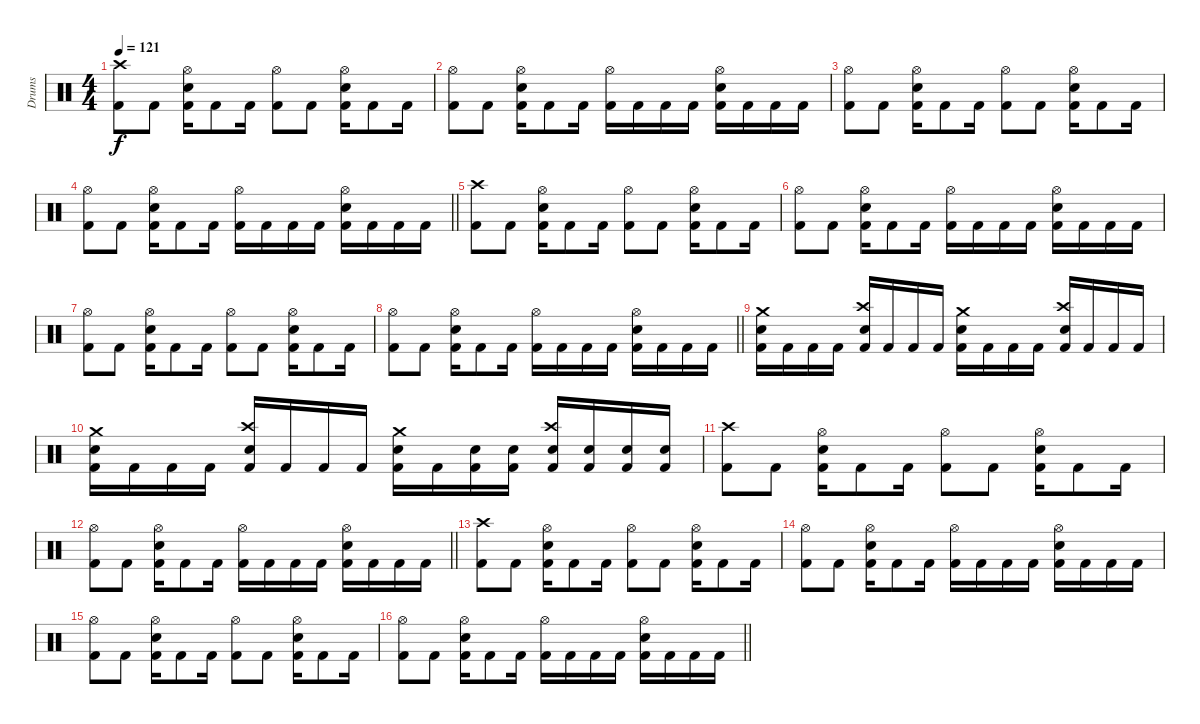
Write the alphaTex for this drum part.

\track ("Drums" "Drums") {instrument percussion}
\staff {score}
\articulation defaults
\ts (4 4)
\section ("" "")
\tempo 121
\clef neutral
\ks c
("Kick (hit) 2" "Crash high (hit)").8{dy f} "Kick (hit) 2".8 ("Kick (hit) 2" "Snare (hit) 2" "Hi-Hat (open)").16 "Kick (hit) 2".8 "Kick (hit) 2".16 ("Kick (hit) 2" "Hi-Hat (open)").8 "Kick (hit) 2".8 ("Kick (hit) 2" "Snare (hit) 2" "Hi-Hat (open)").16 "Kick (hit) 2".8 "Kick (hit) 2".16 |
("Kick (hit) 2" "Hi-Hat (open)").8 "Kick (hit) 2".8 ("Kick (hit) 2" "Snare (hit) 2" "Hi-Hat (open)").16 "Kick (hit) 2".8 "Kick (hit) 2".16 ("Kick (hit) 2" "Hi-Hat (open)").16 "Kick (hit) 2".16 "Kick (hit) 2".16 "Kick (hit) 2".16 ("Kick (hit) 2" "Snare (hit) 2" "Hi-Hat (open)").16 "Kick (hit) 2".16 "Kick (hit) 2".16 "Kick (hit) 2".16 |
("Kick (hit) 2" "Hi-Hat (open)").8 "Kick (hit) 2".8 ("Kick (hit) 2" "Snare (hit) 2" "Hi-Hat (open)").16 "Kick (hit) 2".8 "Kick (hit) 2".16 ("Kick (hit) 2" "Hi-Hat (open)").8 "Kick (hit) 2".8 ("Kick (hit) 2" "Snare (hit) 2" "Hi-Hat (open)").16 "Kick (hit) 2".8 "Kick (hit) 2".16 |
\barLineRight lightlight
("Kick (hit) 2" "Hi-Hat (open)").8 "Kick (hit) 2".8 ("Kick (hit) 2" "Snare (hit) 2" "Hi-Hat (open)").16 "Kick (hit) 2".8 "Kick (hit) 2".16 ("Kick (hit) 2" "Hi-Hat (open)").16 "Kick (hit) 2".16 "Kick (hit) 2".16 "Kick (hit) 2".16 ("Kick (hit) 2" "Snare (hit) 2" "Hi-Hat (open)").16 "Kick (hit) 2".16 "Kick (hit) 2".16 "Kick (hit) 2".16 |
\section ("" "")
("Kick (hit) 2" "Crash high (hit)").8 "Kick (hit) 2".8 ("Kick (hit) 2" "Snare (hit) 2" "Hi-Hat (open)").16 "Kick (hit) 2".8 "Kick (hit) 2".16 ("Kick (hit) 2" "Hi-Hat (open)").8 "Kick (hit) 2".8 ("Kick (hit) 2" "Snare (hit) 2" "Hi-Hat (open)").16 "Kick (hit) 2".8 "Kick (hit) 2".16 |
("Kick (hit) 2" "Hi-Hat (open)").8 "Kick (hit) 2".8 ("Kick (hit) 2" "Snare (hit) 2" "Hi-Hat (open)").16 "Kick (hit) 2".8 "Kick (hit) 2".16 ("Kick (hit) 2" "Hi-Hat (open)").16 "Kick (hit) 2".16 "Kick (hit) 2".16 "Kick (hit) 2".16 ("Kick (hit) 2" "Snare (hit) 2" "Hi-Hat (open)").16 "Kick (hit) 2".16 "Kick (hit) 2".16 "Kick (hit) 2".16 |
("Kick (hit) 2" "Hi-Hat (open)").8 "Kick (hit) 2".8 ("Kick (hit) 2" "Snare (hit) 2" "Hi-Hat (open)").16 "Kick (hit) 2".8 "Kick (hit) 2".16 ("Kick (hit) 2" "Hi-Hat (open)").8 "Kick (hit) 2".8 ("Kick (hit) 2" "Snare (hit) 2" "Hi-Hat (open)").16 "Kick (hit) 2".8 "Kick (hit) 2".16 |
\barLineRight lightlight
("Kick (hit) 2" "Hi-Hat (open)").8 "Kick (hit) 2".8 ("Kick (hit) 2" "Snare (hit) 2" "Hi-Hat (open)").16 "Kick (hit) 2".8 "Kick (hit) 2".16 ("Kick (hit) 2" "Hi-Hat (open)").16 "Kick (hit) 2".16 "Kick (hit) 2".16 "Kick (hit) 2".16 ("Kick (hit) 2" "Snare (hit) 2" "Hi-Hat (open)").16 "Kick (hit) 2".16 "Kick (hit) 2".16 "Kick (hit) 2".16 |
\section ("" "")
("Kick (hit) 2" "Snare (hit) 2" "Crash medium (hit)").16 "Kick (hit) 2".16 "Kick (hit) 2".16 "Kick (hit) 2".16 ("Kick (hit) 2" "Snare (hit) 2" "Crash high (hit)").16 "Kick (hit) 2".16 "Kick (hit) 2".16 "Kick (hit) 2".16 ("Kick (hit) 2" "Snare (hit) 2" "Crash medium (hit)").16 "Kick (hit) 2".16 "Kick (hit) 2".16 "Kick (hit) 2".16 ("Kick (hit) 2" "Snare (hit) 2" "Crash high (hit)").16 "Kick (hit) 2".16 "Kick (hit) 2".16 "Kick (hit) 2".16 |
("Kick (hit) 2" "Snare (hit) 2" "Crash medium (hit)").16 "Kick (hit) 2".16 "Kick (hit) 2".16 "Kick (hit) 2".16 ("Kick (hit) 2" "Snare (hit) 2" "Crash high (hit)").16 "Kick (hit) 2".16 "Kick (hit) 2".16 "Kick (hit) 2".16 ("Kick (hit) 2" "Snare (hit) 2" "Crash medium (hit)").16 "Kick (hit) 2".16 ("Kick (hit) 2" "Snare (hit) 2").16 ("Kick (hit) 2" "Snare (hit) 2").16 ("Kick (hit) 2" "Snare (hit) 2" "Crash high (hit)").16 ("Kick (hit) 2" "Snare (hit) 2").16 ("Kick (hit) 2" "Snare (hit) 2").16 ("Kick (hit) 2" "Snare (hit) 2").16 |
("Kick (hit) 2" "Crash high (hit)").8 "Kick (hit) 2".8 ("Kick (hit) 2" "Snare (hit) 2" "Hi-Hat (open)").16 "Kick (hit) 2".8 "Kick (hit) 2".16 ("Kick (hit) 2" "Hi-Hat (open)").8 "Kick (hit) 2".8 ("Kick (hit) 2" "Snare (hit) 2" "Hi-Hat (open)").16 "Kick (hit) 2".8 "Kick (hit) 2".16 |
\barLineRight lightlight
("Kick (hit) 2" "Hi-Hat (open)").8 "Kick (hit) 2".8 ("Kick (hit) 2" "Snare (hit) 2" "Hi-Hat (open)").16 "Kick (hit) 2".8 "Kick (hit) 2".16 ("Kick (hit) 2" "Hi-Hat (open)").16 "Kick (hit) 2".16 "Kick (hit) 2".16 "Kick (hit) 2".16 ("Kick (hit) 2" "Snare (hit) 2" "Hi-Hat (open)").16 "Kick (hit) 2".16 "Kick (hit) 2".16 "Kick (hit) 2".16 |
\section ("" "")
("Kick (hit) 2" "Crash high (hit)").8 "Kick (hit) 2".8 ("Kick (hit) 2" "Snare (hit) 2" "Hi-Hat (open)").16 "Kick (hit) 2".8 "Kick (hit) 2".16 ("Kick (hit) 2" "Hi-Hat (open)").8 "Kick (hit) 2".8 ("Kick (hit) 2" "Snare (hit) 2" "Hi-Hat (open)").16 "Kick (hit) 2".8 "Kick (hit) 2".16 |
("Kick (hit) 2" "Hi-Hat (open)").8 "Kick (hit) 2".8 ("Kick (hit) 2" "Snare (hit) 2" "Hi-Hat (open)").16 "Kick (hit) 2".8 "Kick (hit) 2".16 ("Kick (hit) 2" "Hi-Hat (open)").16 "Kick (hit) 2".16 "Kick (hit) 2".16 "Kick (hit) 2".16 ("Kick (hit) 2" "Snare (hit) 2" "Hi-Hat (open)").16 "Kick (hit) 2".16 "Kick (hit) 2".16 "Kick (hit) 2".16 |
("Kick (hit) 2" "Hi-Hat (open)").8 "Kick (hit) 2".8 ("Kick (hit) 2" "Snare (hit) 2" "Hi-Hat (open)").16 "Kick (hit) 2".8 "Kick (hit) 2".16 ("Kick (hit) 2" "Hi-Hat (open)").8 "Kick (hit) 2".8 ("Kick (hit) 2" "Snare (hit) 2" "Hi-Hat (open)").16 "Kick (hit) 2".8 "Kick (hit) 2".16 |
\barLineRight lightlight
("Kick (hit) 2" "Hi-Hat (open)").8 "Kick (hit) 2".8 ("Kick (hit) 2" "Snare (hit) 2" "Hi-Hat (open)").16 "Kick (hit) 2".8 "Kick (hit) 2".16 ("Kick (hit) 2" "Hi-Hat (open)").16 "Kick (hit) 2".16 "Kick (hit) 2".16 "Kick (hit) 2".16 ("Kick (hit) 2" "Snare (hit) 2" "Hi-Hat (open)").16 "Kick (hit) 2".16 "Kick (hit) 2".16 "Kick (hit) 2".16
